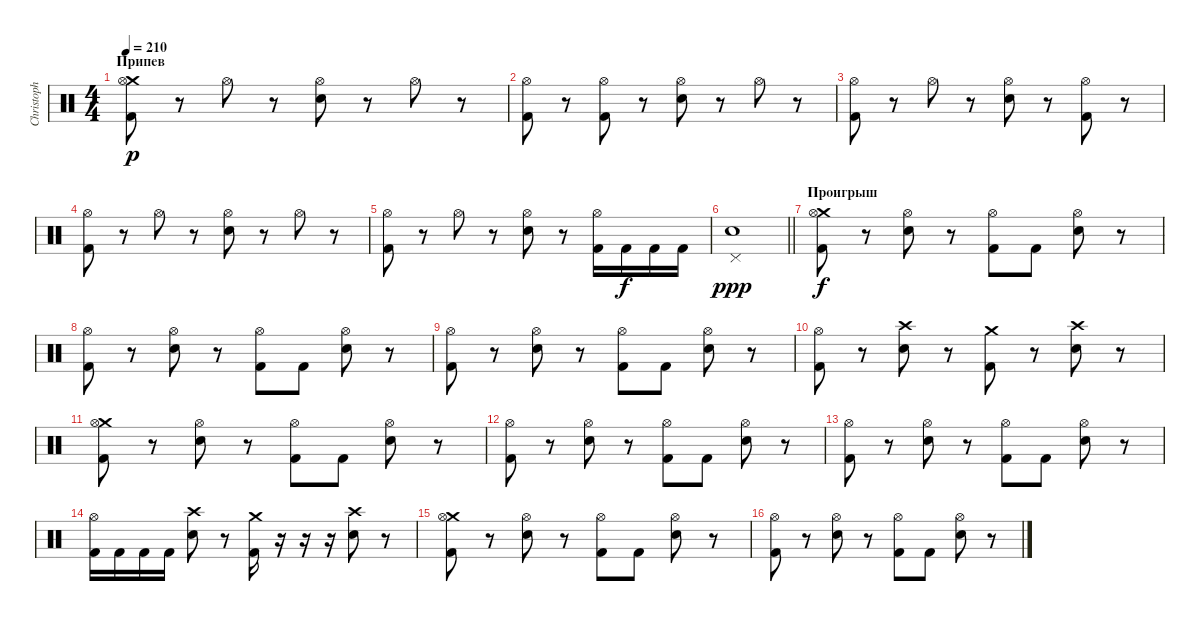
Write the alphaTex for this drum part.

\track ("Christoph Schneider" "Christoph ") {instrument percussion}
\staff {score}
\articulation defaults
\ts (4 4)
\section ("" "Припев")
\tempo 210
\clef neutral
\ks c
("Crash medium (hit)" "Kick (hit) 2" "Hi-Hat (open)").8{dy p} r.8 "Hi-Hat (open)".8 r.8 ("Hi-Hat (open)" "Electric Snare (hit)").8 r.8 "Hi-Hat (open)".8 r.8 |
("Kick (hit) 2" "Hi-Hat (open)").8 r.8 ("Hi-Hat (open)" "Kick (hit) 2").8 r.8 ("Hi-Hat (open)" "Electric Snare (hit)").8 r.8 "Hi-Hat (open)".8 r.8 |
("Kick (hit) 2" "Hi-Hat (open)").8 r.8 "Hi-Hat (open)".8 r.8 ("Hi-Hat (open)" "Electric Snare (hit)").8 r.8 ("Hi-Hat (open)" "Kick (hit) 2").8 r.8 |
("Kick (hit) 2" "Hi-Hat (open)").8 r.8 "Hi-Hat (open)".8 r.8 ("Hi-Hat (open)" "Electric Snare (hit)").8 r.8 "Hi-Hat (open)".8 r.8 |
("Hi-Hat (open)" "Kick (hit) 2").8 r.8 "Hi-Hat (open)".8 r.8 ("Hi-Hat (open)" "Electric Snare (hit)").8 r.8 ("Hi-Hat (open)" "Kick (hit) 2").16 "Kick (hit) 2".16{dy f} "Kick (hit) 2".16 "Kick (hit) 2".16 |
\barLineRight lightlight
("Pedal Hi-Hat (hit)" "Electric Snare (hit)").1{dy ppp} |
\section ("" "Проигрыш")
("Crash medium (hit)" "Kick (hit) 2" "Hi-Hat (open)").8{dy f} r.8 ("Hi-Hat (open)" "Electric Snare (hit)").8 r.8 ("Hi-Hat (open)" "Kick (hit) 2").8 "Kick (hit) 2".8 ("Hi-Hat (open)" "Electric Snare (hit)").8 r.8 |
("Hi-Hat (open)" "Kick (hit) 2").8 r.8 ("Hi-Hat (open)" "Electric Snare (hit)").8 r.8 ("Hi-Hat (open)" "Kick (hit) 2").8 "Kick (hit) 2".8 ("Hi-Hat (open)" "Electric Snare (hit)").8 r.8 |
("Hi-Hat (open)" "Kick (hit) 2").8 r.8 ("Hi-Hat (open)" "Electric Snare (hit)").8 r.8 ("Hi-Hat (open)" "Kick (hit) 2").8 "Kick (hit) 2".8 ("Hi-Hat (open)" "Electric Snare (hit)").8 r.8 |
("Hi-Hat (open)" "Kick (hit) 2").8 r.8 ("Crash high (hit)" "Electric Snare (hit)").8 r.8 ("Crash medium (hit)" "Kick (hit) 2").8 r.8 ("Crash high (hit)" "Electric Snare (hit)").8 r.8 |
("Crash medium (hit)" "Kick (hit) 2" "Hi-Hat (open)").8 r.8 ("Hi-Hat (open)" "Electric Snare (hit)").8 r.8 ("Hi-Hat (open)" "Kick (hit) 2").8 "Kick (hit) 2".8 ("Hi-Hat (open)" "Electric Snare (hit)").8 r.8 |
("Hi-Hat (open)" "Kick (hit) 2").8 r.8 ("Hi-Hat (open)" "Electric Snare (hit)").8 r.8 ("Hi-Hat (open)" "Kick (hit) 2").8 "Kick (hit) 2".8 ("Hi-Hat (open)" "Electric Snare (hit)").8 r.8 |
("Hi-Hat (open)" "Kick (hit) 2").8 r.8 ("Hi-Hat (open)" "Electric Snare (hit)").8 r.8 ("Hi-Hat (open)" "Kick (hit) 2").8 "Kick (hit) 2".8 ("Hi-Hat (open)" "Electric Snare (hit)").8 r.8 |
("Hi-Hat (open)" "Kick (hit) 2").16 "Kick (hit) 2".16 "Kick (hit) 2".16 "Kick (hit) 2".16 ("Crash high (hit)" "Electric Snare (hit)").8 r.8 ("Crash medium (hit)" "Kick (hit) 2").16 r.16 r.16 r.16 ("Crash high (hit)" "Electric Snare (hit)").8 r.8 |
("Crash medium (hit)" "Kick (hit) 2" "Hi-Hat (open)").8 r.8 ("Hi-Hat (open)" "Electric Snare (hit)").8 r.8 ("Hi-Hat (open)" "Kick (hit) 2").8 "Kick (hit) 2".8 ("Hi-Hat (open)" "Electric Snare (hit)").8 r.8 |
("Hi-Hat (open)" "Kick (hit) 2").8 r.8 ("Hi-Hat (open)" "Electric Snare (hit)").8 r.8 ("Hi-Hat (open)" "Kick (hit) 2").8 "Kick (hit) 2".8 ("Hi-Hat (open)" "Electric Snare (hit)").8 r.8
